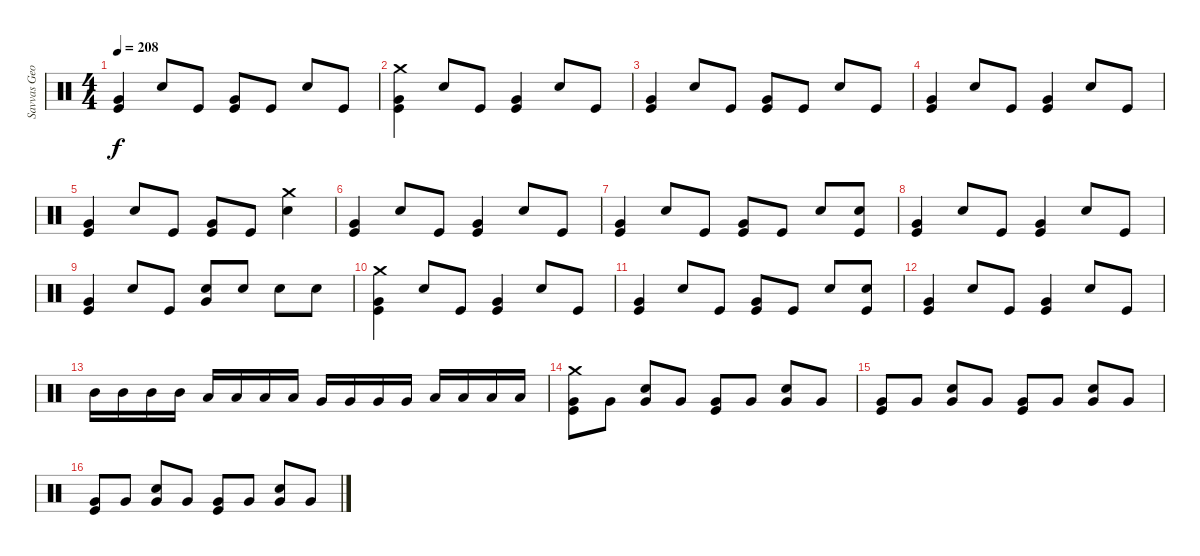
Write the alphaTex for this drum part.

\track ("Savvas Georgiadis" "Savvas Geo") {instrument percussion}
\staff {score}
\articulation defaults
\ts (4 4)
\tempo 208
\clef neutral
\ks c
("Very Low Tom (hit)" "Kick (hit)").4{dy f} "Snare (hit) 2".8 "Kick (hit)".8 ("Very Low Tom (hit)" "Kick (hit)").8 "Kick (hit)".8 "Snare (hit) 2".8 "Kick (hit)".8 |
("Crash medium (hit)" "Very Low Tom (hit)" "Kick (hit)").4 "Snare (hit) 2".8 "Kick (hit)".8 ("Very Low Tom (hit)" "Kick (hit)").4 "Snare (hit) 2".8 "Kick (hit)".8 |
("Very Low Tom (hit)" "Kick (hit)").4 "Snare (hit) 2".8 "Kick (hit)".8 ("Very Low Tom (hit)" "Kick (hit)").8 "Kick (hit)".8 "Snare (hit) 2".8 "Kick (hit)".8 |
("Very Low Tom (hit)" "Kick (hit)").4 "Snare (hit) 2".8 "Kick (hit)".8 ("Very Low Tom (hit)" "Kick (hit)").4 "Snare (hit) 2".8 "Kick (hit)".8 |
("Very Low Tom (hit)" "Kick (hit)").4 "Snare (hit) 2".8 "Kick (hit)".8 ("Very Low Tom (hit)" "Kick (hit)").8 "Kick (hit)".8 ("Crash medium (hit)" "Snare (hit) 2").4 |
("Very Low Tom (hit)" "Kick (hit)").4 "Snare (hit) 2".8 "Kick (hit)".8 ("Very Low Tom (hit)" "Kick (hit)").4 "Snare (hit) 2".8 "Kick (hit)".8 |
("Very Low Tom (hit)" "Kick (hit)").4 "Snare (hit) 2".8 "Kick (hit)".8 ("Very Low Tom (hit)" "Kick (hit)").8 "Kick (hit)".8 "Snare (hit) 2".8 ("Snare (hit) 2" "Kick (hit)").8 |
("Very Low Tom (hit)" "Kick (hit)").4 "Snare (hit) 2".8 "Kick (hit)".8 ("Very Low Tom (hit)" "Kick (hit)").4 "Snare (hit) 2".8 "Kick (hit)".8 |
("Very Low Tom (hit)" "Kick (hit)").4 "Snare (hit) 2".8 "Kick (hit)".8 ("Snare (hit) 2" "Very Low Tom (hit)").8 "Snare (hit) 2".8 "Snare (hit) 2".8 "Snare (hit) 2".8 |
("Crash medium (hit)" "Very Low Tom (hit)" "Kick (hit)").4 "Snare (hit) 2".8 "Kick (hit)".8 ("Very Low Tom (hit)" "Kick (hit)").4 "Snare (hit) 2".8 "Kick (hit)".8 |
("Very Low Tom (hit)" "Kick (hit)").4 "Snare (hit) 2".8 "Kick (hit)".8 ("Very Low Tom (hit)" "Kick (hit)").8 "Kick (hit)".8 "Snare (hit) 2".8 ("Snare (hit) 2" "Kick (hit)").8 |
("Very Low Tom (hit)" "Kick (hit)").4 "Snare (hit) 2".8 "Kick (hit)".8 ("Very Low Tom (hit)" "Kick (hit)").4 "Snare (hit) 2".8 "Kick (hit)".8 |
"Mid Tom (hit)".16 "Mid Tom (hit)".16 "Mid Tom (hit)".16 "Mid Tom (hit)".16 "Low Tom (hit)".16 "Low Tom (hit)".16 "Low Tom (hit)".16 "Low Tom (hit)".16 "Very Low Tom (hit)".16 "Very Low Tom (hit)".16 "Very Low Tom (hit)".16 "Very Low Tom (hit)".16 "Low Floor Tom (hit)".16 "Low Floor Tom (hit)".16 "Low Floor Tom (hit)".16 "Low Floor Tom (hit)".16 |
("Crash medium (hit)" "Very Low Tom (hit)" "Kick (hit)").8 "Very Low Tom (hit)".8 ("Snare (hit) 2" "Very Low Tom (hit)").8 "Very Low Tom (hit)".8 ("Very Low Tom (hit)" "Kick (hit)").8 "Very Low Tom (hit)".8 ("Snare (hit) 2" "Very Low Tom (hit)").8 "Very Low Tom (hit)".8 |
("Very Low Tom (hit)" "Kick (hit)").8 "Very Low Tom (hit)".8 ("Snare (hit) 2" "Very Low Tom (hit)").8 "Very Low Tom (hit)".8 ("Very Low Tom (hit)" "Kick (hit)").8 "Very Low Tom (hit)".8 ("Snare (hit) 2" "Very Low Tom (hit)").8 "Very Low Tom (hit)".8 |
("Very Low Tom (hit)" "Kick (hit)").8 "Very Low Tom (hit)".8 ("Snare (hit) 2" "Very Low Tom (hit)").8 "Very Low Tom (hit)".8 ("Very Low Tom (hit)" "Kick (hit)").8 "Very Low Tom (hit)".8 ("Snare (hit) 2" "Very Low Tom (hit)").8 "Very Low Tom (hit)".8
